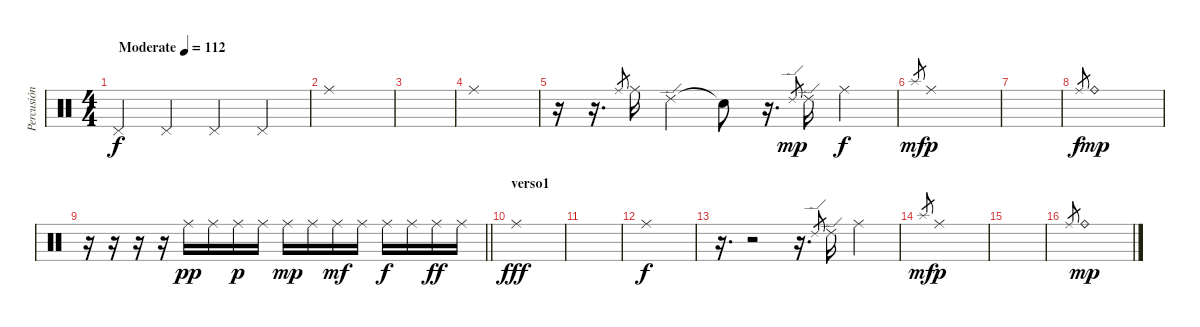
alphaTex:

\track ("Percusión" "Percusión") {instrument percussion}
\staff {score}
\articulation defaults
\ts (4 4)
\tempo (112 "Moderate")
\clef neutral
\ks c "Pedal Hi-Hat (hit)".4{dy f} "Pedal Hi-Hat (hit)".4 "Pedal Hi-Hat (hit)".4 "Pedal Hi-Hat (hit)".4
|
"Ride (middle)".1{volume 6} |
|
"Ride (middle)".1 |
r.16 r.16{d} "Ride (middle)".8{gr} "Ride (middle)".16 "Ride (edge) 2".4 "Snare (hit)"{t}.8 r.16{d} "Ride (edge) 2".8{gr dy mp} "Ride (edge) 2".16 "Ride (middle)".4{dy f} |
"Splash (hit)".8{gr dy mf} "Ride (middle)".1{dy p} |
|
"Ride (middle)".8{gr dy f} "Ride (bell)".1{dy mp} |
\barLineRight lightlight
r.16 r.16 r.16 r.16 "Ride (middle)".16{dy pp} "Ride (middle)".16 "Ride (middle)".16{dy p} "Ride (middle)".16 "Ride (middle)".16{dy mp} "Ride (middle)".16 "Ride (middle)".16{dy mf} "Ride (middle)".16 "Ride (middle)".16{dy f} "Ride (middle)".16 "Ride (middle)".16{dy ff} "Ride (middle)".16 |
\section ("" "verso1")
"Ride (middle)".1{dy fff} |
|
"Ride (middle)".1{dy f} |
r.16{d} r.2 r.16{d} "Ride (edge) 2".8{gr} "Ride (edge) 2".16 "Ride (middle)".4 |
"Splash (hit)".8{gr dy mf} "Ride (middle)".1{dy p} |
|
"Ride (middle)".8{gr} "Ride (bell)".1{dy mp}
